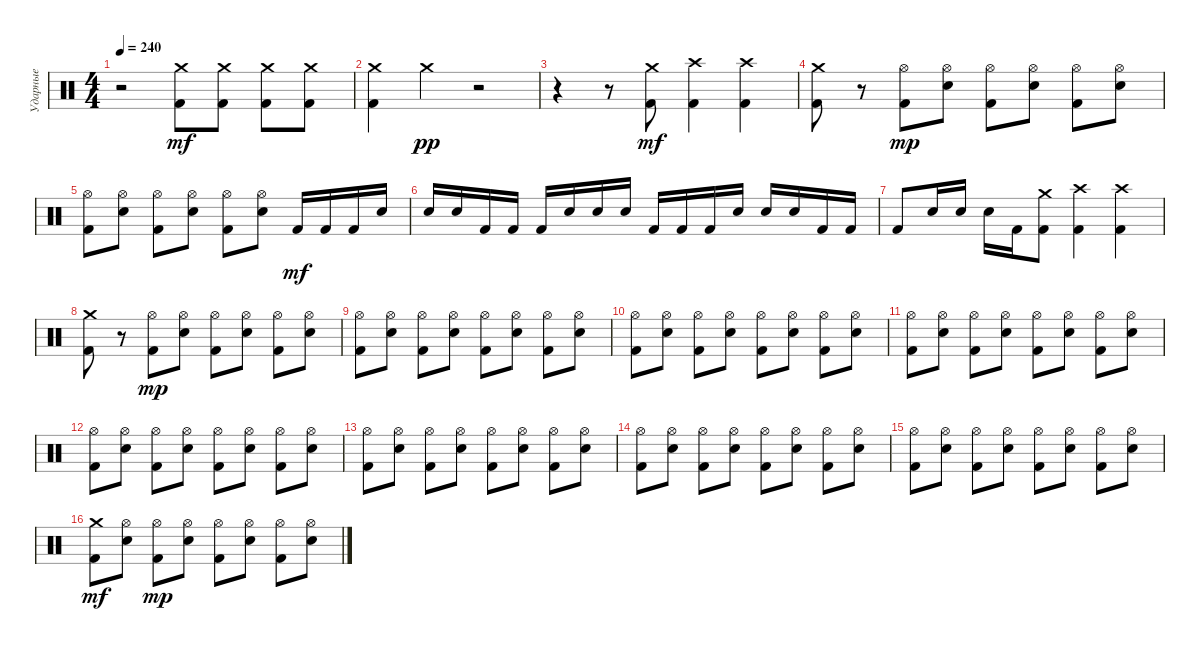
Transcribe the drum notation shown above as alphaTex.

\track ("Ударные" "Ударные") {instrument percussion}
\staff {score}
\articulation defaults
\ts (4 4)
\tempo 240
\clef neutral
\ks c
r.2{dy mf} ("Crash medium (hit)" "Kick (hit) 2").8 ("Crash medium (hit)" "Kick (hit) 2").8 ("Crash medium (hit)" "Kick (hit) 2").8 ("Crash medium (hit)" "Kick (hit) 2").8 |
("Crash medium (hit)" "Kick (hit) 2").4 "Crash medium (hit)".4{dy pp} r.2 |
r.4 r.8 ("Crash medium (hit)" "Kick (hit) 2").8{dy mf} ("Crash high (hit)" "Kick (hit) 2").4 ("Crash high (hit)" "Kick (hit) 2").4 |
("Crash medium (hit)" "Kick (hit) 2").8 r.8 ("Hi-Hat (open)" "Kick (hit) 2").8{dy mp} ("Hi-Hat (open)" "Snare (hit) 2").8 ("Hi-Hat (open)" "Kick (hit) 2").8 ("Hi-Hat (open)" "Snare (hit) 2").8 ("Hi-Hat (open)" "Kick (hit) 2").8 ("Hi-Hat (open)" "Snare (hit) 2").8 |
("Hi-Hat (open)" "Kick (hit) 2").8 ("Hi-Hat (open)" "Snare (hit) 2").8 ("Hi-Hat (open)" "Kick (hit) 2").8 ("Hi-Hat (open)" "Snare (hit) 2").8 ("Hi-Hat (open)" "Kick (hit) 2").8 ("Hi-Hat (open)" "Snare (hit) 2").8 "Kick (hit) 2".16{dy mf} "Kick (hit) 2".16 "Kick (hit) 2".16 "Snare (hit) 2".16 |
"Snare (hit) 2".16 "Snare (hit) 2".16 "Kick (hit) 2".16 "Kick (hit) 2".16 "Kick (hit) 2".16 "Snare (hit) 2".16 "Snare (hit) 2".16 "Snare (hit) 2".16 "Kick (hit) 2".16 "Kick (hit) 2".16 "Kick (hit) 2".16 "Snare (hit) 2".16 "Snare (hit) 2".16 "Snare (hit) 2".16 "Kick (hit) 2".16 "Kick (hit) 2".16 |
"Kick (hit) 2".8 "Snare (hit) 2".16 "Snare (hit) 2".16 "Snare (hit) 2".16 "Kick (hit) 2".16 ("Crash medium (hit)" "Kick (hit) 2").8 ("Crash high (hit)" "Kick (hit) 2").4 ("Crash high (hit)" "Kick (hit) 2").4 |
("Crash medium (hit)" "Kick (hit) 2").8 r.8 ("Hi-Hat (open)" "Kick (hit) 2").8{dy mp} ("Hi-Hat (open)" "Snare (hit) 2").8 ("Hi-Hat (open)" "Kick (hit) 2").8 ("Hi-Hat (open)" "Snare (hit) 2").8 ("Hi-Hat (open)" "Kick (hit) 2").8 ("Hi-Hat (open)" "Snare (hit) 2").8 |
("Hi-Hat (open)" "Kick (hit) 2").8 ("Hi-Hat (open)" "Snare (hit) 2").8 ("Hi-Hat (open)" "Kick (hit) 2").8 ("Hi-Hat (open)" "Snare (hit) 2").8 ("Hi-Hat (open)" "Kick (hit) 2").8 ("Hi-Hat (open)" "Snare (hit) 2").8 ("Hi-Hat (open)" "Kick (hit) 2").8 ("Hi-Hat (open)" "Snare (hit) 2").8 |
("Hi-Hat (open)" "Kick (hit) 2").8 ("Hi-Hat (open)" "Snare (hit) 2").8 ("Hi-Hat (open)" "Kick (hit) 2").8 ("Hi-Hat (open)" "Snare (hit) 2").8 ("Hi-Hat (open)" "Kick (hit) 2").8 ("Hi-Hat (open)" "Snare (hit) 2").8 ("Hi-Hat (open)" "Kick (hit) 2").8 ("Hi-Hat (open)" "Snare (hit) 2").8 |
("Hi-Hat (open)" "Kick (hit) 2").8 ("Hi-Hat (open)" "Snare (hit) 2").8 ("Hi-Hat (open)" "Kick (hit) 2").8 ("Hi-Hat (open)" "Snare (hit) 2").8 ("Hi-Hat (open)" "Kick (hit) 2").8 ("Hi-Hat (open)" "Snare (hit) 2").8 ("Hi-Hat (open)" "Kick (hit) 2").8 ("Hi-Hat (open)" "Snare (hit) 2").8 |
("Hi-Hat (open)" "Kick (hit) 2").8 ("Hi-Hat (open)" "Snare (hit) 2").8 ("Hi-Hat (open)" "Kick (hit) 2").8 ("Hi-Hat (open)" "Snare (hit) 2").8 ("Hi-Hat (open)" "Kick (hit) 2").8 ("Hi-Hat (open)" "Snare (hit) 2").8 ("Hi-Hat (open)" "Kick (hit) 2").8 ("Hi-Hat (open)" "Snare (hit) 2").8 |
("Hi-Hat (open)" "Kick (hit) 2").8 ("Hi-Hat (open)" "Snare (hit) 2").8 ("Hi-Hat (open)" "Kick (hit) 2").8 ("Hi-Hat (open)" "Snare (hit) 2").8 ("Hi-Hat (open)" "Kick (hit) 2").8 ("Hi-Hat (open)" "Snare (hit) 2").8 ("Hi-Hat (open)" "Kick (hit) 2").8 ("Hi-Hat (open)" "Snare (hit) 2").8 |
("Hi-Hat (open)" "Kick (hit) 2").8 ("Hi-Hat (open)" "Snare (hit) 2").8 ("Hi-Hat (open)" "Kick (hit) 2").8 ("Hi-Hat (open)" "Snare (hit) 2").8 ("Hi-Hat (open)" "Kick (hit) 2").8 ("Hi-Hat (open)" "Snare (hit) 2").8 ("Hi-Hat (open)" "Kick (hit) 2").8 ("Hi-Hat (open)" "Snare (hit) 2").8 |
("Hi-Hat (open)" "Kick (hit) 2").8 ("Hi-Hat (open)" "Snare (hit) 2").8 ("Hi-Hat (open)" "Kick (hit) 2").8 ("Hi-Hat (open)" "Snare (hit) 2").8 ("Hi-Hat (open)" "Kick (hit) 2").8 ("Hi-Hat (open)" "Snare (hit) 2").8 ("Hi-Hat (open)" "Kick (hit) 2").8 ("Hi-Hat (open)" "Snare (hit) 2").8 |
("Crash medium (hit)" "Kick (hit) 2").8{dy mf} ("Hi-Hat (open)" "Snare (hit) 2").8 ("Hi-Hat (open)" "Kick (hit) 2").8{dy mp} ("Hi-Hat (open)" "Snare (hit) 2").8 ("Hi-Hat (open)" "Kick (hit) 2").8 ("Hi-Hat (open)" "Snare (hit) 2").8 ("Hi-Hat (open)" "Kick (hit) 2").8 ("Hi-Hat (open)" "Snare (hit) 2").8
